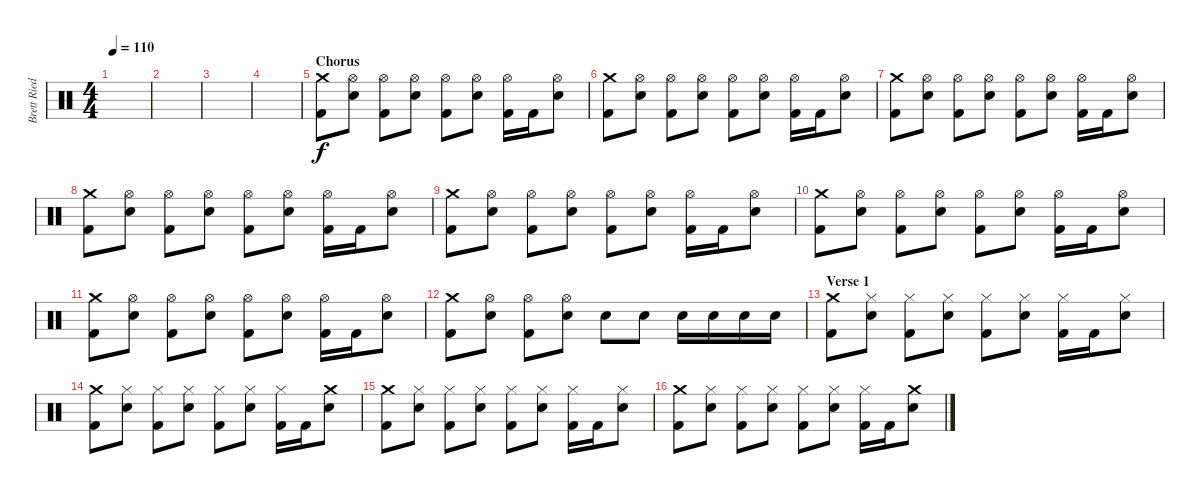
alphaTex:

\track ("Brett Ried" "Brett Ried") {instrument percussion}
\staff {score}
\articulation defaults
\ts (4 4)
\tempo 110
\clef neutral
\ks c
|
|
|
|
\section ("" "Chorus")
("Crash medium (hit)" "Kick (hit) 2").8 ("Hi-Hat (open)" "Snare (hit) 2").8 ("Hi-Hat (open)" "Kick (hit) 2").8 ("Hi-Hat (open)" "Snare (hit) 2").8 ("Hi-Hat (open)" "Kick (hit) 2").8 ("Hi-Hat (open)" "Snare (hit) 2").8 ("Hi-Hat (open)" "Kick (hit) 2").16 "Kick (hit) 2".16 ("Hi-Hat (open)" "Snare (hit) 2").8 |
("Crash medium (hit)" "Kick (hit) 2").8 ("Hi-Hat (open)" "Snare (hit) 2").8 ("Hi-Hat (open)" "Kick (hit) 2").8 ("Hi-Hat (open)" "Snare (hit) 2").8 ("Hi-Hat (open)" "Kick (hit) 2").8 ("Hi-Hat (open)" "Snare (hit) 2").8 ("Hi-Hat (open)" "Kick (hit) 2").16 "Kick (hit) 2".16 ("Hi-Hat (open)" "Snare (hit) 2").8 |
("Crash medium (hit)" "Kick (hit) 2").8 ("Hi-Hat (open)" "Snare (hit) 2").8 ("Hi-Hat (open)" "Kick (hit) 2").8 ("Hi-Hat (open)" "Snare (hit) 2").8 ("Hi-Hat (open)" "Kick (hit) 2").8 ("Hi-Hat (open)" "Snare (hit) 2").8 ("Hi-Hat (open)" "Kick (hit) 2").16 "Kick (hit) 2".16 ("Hi-Hat (open)" "Snare (hit) 2").8 |
("Crash medium (hit)" "Kick (hit) 2").8 ("Hi-Hat (open)" "Snare (hit) 2").8 ("Hi-Hat (open)" "Kick (hit) 2").8 ("Hi-Hat (open)" "Snare (hit) 2").8 ("Hi-Hat (open)" "Kick (hit) 2").8 ("Hi-Hat (open)" "Snare (hit) 2").8 ("Hi-Hat (open)" "Kick (hit) 2").16 "Kick (hit) 2".16 ("Hi-Hat (open)" "Snare (hit) 2").8 |
("Crash medium (hit)" "Kick (hit) 2").8 ("Hi-Hat (open)" "Snare (hit) 2").8 ("Hi-Hat (open)" "Kick (hit) 2").8 ("Hi-Hat (open)" "Snare (hit) 2").8 ("Hi-Hat (open)" "Kick (hit) 2").8 ("Hi-Hat (open)" "Snare (hit) 2").8 ("Hi-Hat (open)" "Kick (hit) 2").16 "Kick (hit) 2".16 ("Hi-Hat (open)" "Snare (hit) 2").8 |
("Crash medium (hit)" "Kick (hit) 2").8 ("Hi-Hat (open)" "Snare (hit) 2").8 ("Hi-Hat (open)" "Kick (hit) 2").8 ("Hi-Hat (open)" "Snare (hit) 2").8 ("Hi-Hat (open)" "Kick (hit) 2").8 ("Hi-Hat (open)" "Snare (hit) 2").8 ("Hi-Hat (open)" "Kick (hit) 2").16 "Kick (hit) 2".16 ("Hi-Hat (open)" "Snare (hit) 2").8 |
("Crash medium (hit)" "Kick (hit) 2").8 ("Hi-Hat (open)" "Snare (hit) 2").8 ("Hi-Hat (open)" "Kick (hit) 2").8 ("Hi-Hat (open)" "Snare (hit) 2").8 ("Hi-Hat (open)" "Kick (hit) 2").8 ("Hi-Hat (open)" "Snare (hit) 2").8 ("Hi-Hat (open)" "Kick (hit) 2").16 "Kick (hit) 2".16 ("Hi-Hat (open)" "Snare (hit) 2").8 |
("Crash medium (hit)" "Kick (hit) 2").8 ("Hi-Hat (open)" "Snare (hit) 2").8 ("Hi-Hat (open)" "Kick (hit) 2").8 ("Hi-Hat (open)" "Snare (hit) 2").8 "Snare (hit) 2".8 "Snare (hit) 2".8 "Snare (hit) 2".16 "Snare (hit) 2".16 "Snare (hit) 2".16 "Snare (hit) 2".16 |
\section ("" "Verse 1")
("Crash medium (hit)" "Kick (hit) 2").8 ("Hi-Hat (closed)" "Snare (hit) 2").8 ("Hi-Hat (closed)" "Kick (hit) 2").8 ("Hi-Hat (closed)" "Snare (hit) 2").8 ("Hi-Hat (closed)" "Kick (hit) 2").8 ("Hi-Hat (closed)" "Snare (hit) 2").8 ("Hi-Hat (closed)" "Kick (hit) 2").16 "Kick (hit) 2".16 ("Hi-Hat (closed)" "Snare (hit) 2").8 |
("Crash medium (hit)" "Kick (hit) 2").8 ("Hi-Hat (closed)" "Snare (hit) 2").8 ("Hi-Hat (closed)" "Kick (hit) 2").8 ("Hi-Hat (closed)" "Snare (hit) 2").8 ("Hi-Hat (closed)" "Kick (hit) 2").8 ("Hi-Hat (closed)" "Snare (hit) 2").8 ("Hi-Hat (closed)" "Kick (hit) 2").16 "Kick (hit) 2".16 ("Crash medium (hit)" "Snare (hit) 2").8 |
("Crash medium (hit)" "Kick (hit) 2").8 ("Hi-Hat (closed)" "Snare (hit) 2").8 ("Hi-Hat (closed)" "Kick (hit) 2").8 ("Hi-Hat (closed)" "Snare (hit) 2").8 ("Hi-Hat (closed)" "Kick (hit) 2").8 ("Hi-Hat (closed)" "Snare (hit) 2").8 ("Hi-Hat (closed)" "Kick (hit) 2").16 "Kick (hit) 2".16 ("Hi-Hat (closed)" "Snare (hit) 2").8 |
("Crash medium (hit)" "Kick (hit) 2").8 ("Hi-Hat (closed)" "Snare (hit) 2").8 ("Hi-Hat (closed)" "Kick (hit) 2").8 ("Hi-Hat (closed)" "Snare (hit) 2").8 ("Hi-Hat (closed)" "Kick (hit) 2").8 ("Hi-Hat (closed)" "Snare (hit) 2").8 ("Hi-Hat (closed)" "Kick (hit) 2").16 "Kick (hit) 2".16 ("Crash medium (hit)" "Snare (hit) 2").8
